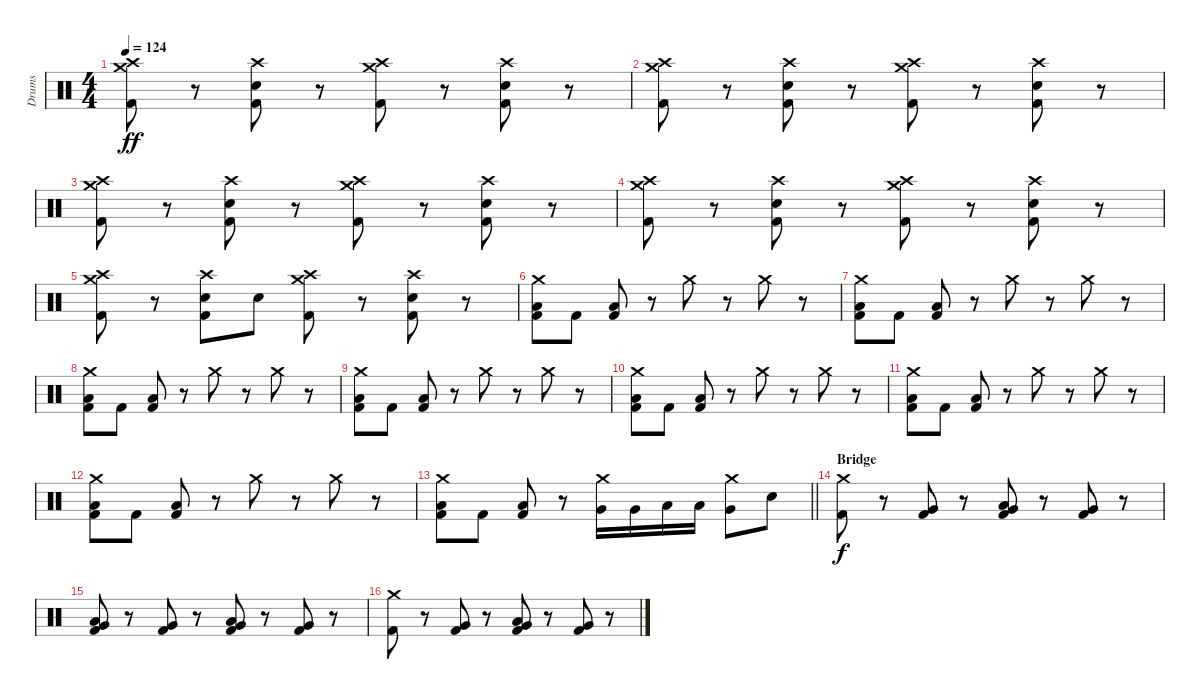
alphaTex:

\track ("Drums" "Drums") {instrument percussion}
\staff {score}
\articulation defaults
\ts (4 4)
\tempo 124
\clef neutral
\ks c
("Crash medium (hit)" "Crash high (hit)" "Kick (hit) 2").8{dy ff} r.8 ("Crash high (hit)" "Electric Snare (hit)" "Kick (hit) 2").8 r.8 ("Crash medium (hit)" "Crash high (hit)" "Kick (hit) 2").8 r.8 ("Crash high (hit)" "Electric Snare (hit)" "Kick (hit) 2").8 r.8 |
("Crash medium (hit)" "Crash high (hit)" "Kick (hit) 2").8 r.8 ("Crash high (hit)" "Electric Snare (hit)" "Kick (hit) 2").8 r.8 ("Crash medium (hit)" "Crash high (hit)" "Kick (hit) 2").8 r.8 ("Crash high (hit)" "Electric Snare (hit)" "Kick (hit) 2").8 r.8 |
("Crash medium (hit)" "Crash high (hit)" "Kick (hit) 2").8 r.8 ("Crash high (hit)" "Electric Snare (hit)" "Kick (hit) 2").8 r.8 ("Crash medium (hit)" "Crash high (hit)" "Kick (hit) 2").8 r.8 ("Crash high (hit)" "Electric Snare (hit)" "Kick (hit) 2").8 r.8 |
("Crash medium (hit)" "Crash high (hit)" "Kick (hit) 2").8 r.8 ("Crash high (hit)" "Electric Snare (hit)" "Kick (hit) 2").8 r.8 ("Crash medium (hit)" "Crash high (hit)" "Kick (hit) 2").8 r.8 ("Crash high (hit)" "Electric Snare (hit)" "Kick (hit) 2").8 r.8 |
("Crash medium (hit)" "Crash high (hit)" "Kick (hit) 2").8 r.8 ("Crash high (hit)" "Electric Snare (hit)" "Kick (hit) 2").8 "Electric Snare (hit)".8 ("Crash medium (hit)" "Crash high (hit)" "Kick (hit) 2").8 r.8 ("Crash high (hit)" "Electric Snare (hit)" "Kick (hit) 2").8 r.8 |
("Crash medium (hit)" "Low Floor Tom (hit)" "Kick (hit) 2").8 "Kick (hit) 2".8 ("Low Floor Tom (hit)" "Kick (hit) 2").8 r.8 "Crash medium (hit)".8 r.8 "Crash medium (hit)".8 r.8 |
("Crash medium (hit)" "Low Floor Tom (hit)" "Kick (hit) 2").8 "Kick (hit) 2".8 ("Low Floor Tom (hit)" "Kick (hit) 2").8 r.8 "Crash medium (hit)".8 r.8 "Crash medium (hit)".8 r.8 |
("Crash medium (hit)" "Low Floor Tom (hit)" "Kick (hit) 2").8 "Kick (hit) 2".8 ("Low Floor Tom (hit)" "Kick (hit) 2").8 r.8 "Crash medium (hit)".8 r.8 "Crash medium (hit)".8 r.8 |
("Crash medium (hit)" "Low Floor Tom (hit)" "Kick (hit) 2").8 "Kick (hit) 2".8 ("Low Floor Tom (hit)" "Kick (hit) 2").8 r.8 "Crash medium (hit)".8 r.8 "Crash medium (hit)".8 r.8 |
("Crash medium (hit)" "Low Floor Tom (hit)" "Kick (hit) 2").8 "Kick (hit) 2".8 ("Low Floor Tom (hit)" "Kick (hit) 2").8 r.8 "Crash medium (hit)".8 r.8 "Crash medium (hit)".8 r.8 |
("Crash medium (hit)" "Low Floor Tom (hit)" "Kick (hit) 2").8 "Kick (hit) 2".8 ("Low Floor Tom (hit)" "Kick (hit) 2").8 r.8 "Crash medium (hit)".8 r.8 "Crash medium (hit)".8 r.8 |
("Crash medium (hit)" "Low Floor Tom (hit)" "Kick (hit) 2").8 "Kick (hit) 2".8 ("Low Floor Tom (hit)" "Kick (hit) 2").8 r.8 "Crash medium (hit)".8 r.8 "Crash medium (hit)".8 r.8 |
\barLineRight lightlight
("Crash medium (hit)" "Low Floor Tom (hit)" "Kick (hit) 2").8 "Kick (hit) 2".8 ("Low Floor Tom (hit)" "Kick (hit) 2").8 r.8 ("Crash medium (hit)" "Very Low Tom (hit)").16 "Very Low Tom (hit)".16 "Low Floor Tom (hit)".16 "Low Floor Tom (hit)".16 ("Crash medium (hit)" "Very Low Tom (hit)").8 "Electric Snare (hit)".8 |
\section ("" "Bridge")
("Crash medium (hit)" "Kick (hit) 2").8{dy f} r.8 ("Very Low Tom (hit)" "Kick (hit) 2").8 r.8 ("Very Low Tom (hit)" "Low Floor Tom (hit)" "Kick (hit) 2").8 r.8 ("Very Low Tom (hit)" "Kick (hit) 2").8 r.8 |
("Very Low Tom (hit)" "Low Floor Tom (hit)" "Kick (hit) 2").8 r.8 ("Very Low Tom (hit)" "Kick (hit) 2").8 r.8 ("Very Low Tom (hit)" "Low Floor Tom (hit)" "Kick (hit) 2").8 r.8 ("Very Low Tom (hit)" "Kick (hit) 2").8 r.8 |
("Crash medium (hit)" "Kick (hit) 2").8 r.8 ("Very Low Tom (hit)" "Kick (hit) 2").8 r.8 ("Very Low Tom (hit)" "Low Floor Tom (hit)" "Kick (hit) 2").8 r.8 ("Very Low Tom (hit)" "Kick (hit) 2").8 r.8
